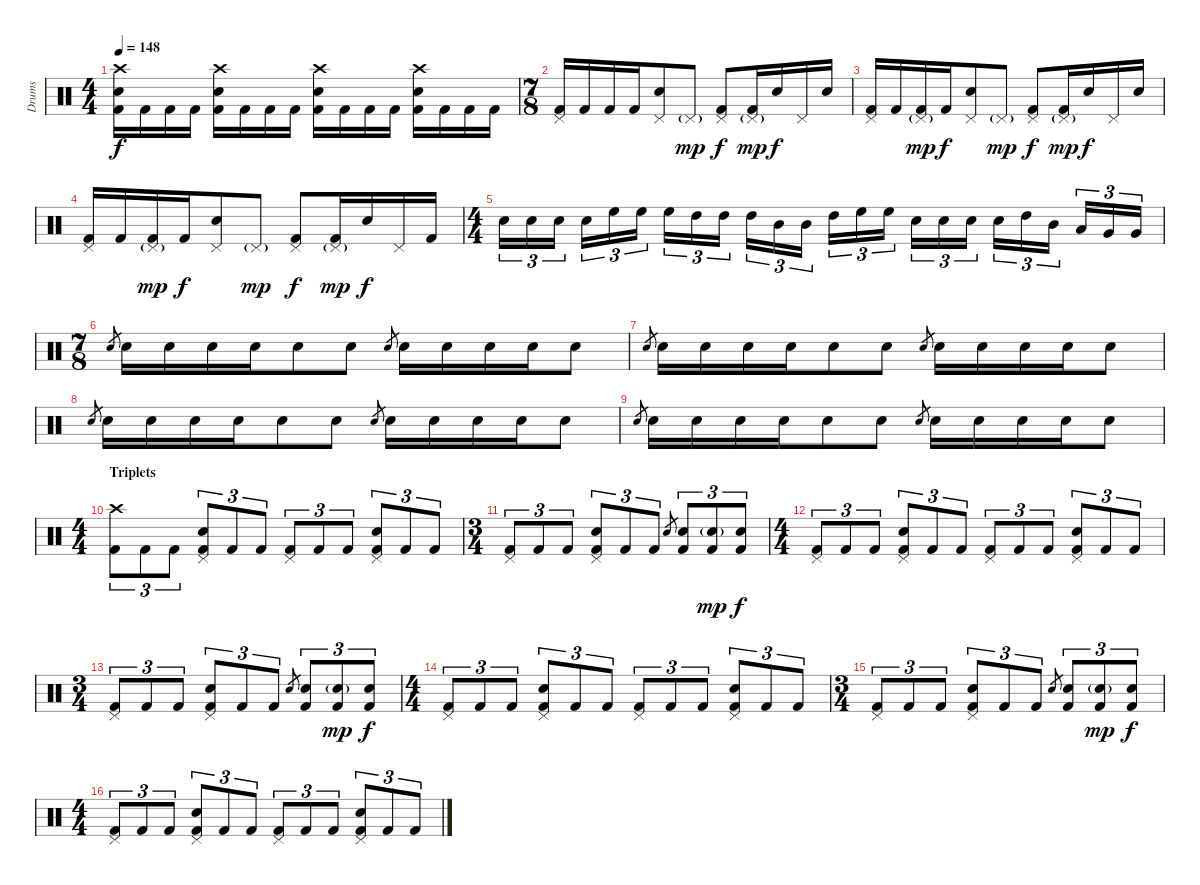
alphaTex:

\track ("Drums" "Drums") {instrument percussion}
\staff {score}
\articulation defaults
\ts (4 4)
\tempo 148
\clef neutral
\ks c
("Crash high (hit)" "Snare (hit) 2" "Kick (hit) 2").16{dy f} "Kick (hit) 2".16 "Kick (hit) 2".16 "Kick (hit) 2".16 ("Crash high (hit)" "Snare (hit) 2" "Kick (hit) 2").16 "Kick (hit) 2".16 "Kick (hit) 2".16 "Kick (hit) 2".16 ("Crash high (hit)" "Snare (hit) 2" "Kick (hit) 2").16 "Kick (hit) 2".16 "Kick (hit) 2".16 "Kick (hit) 2".16 ("Crash high (hit)" "Snare (hit) 2" "Kick (hit) 2").16 "Kick (hit) 2".16 "Kick (hit) 2".16 "Kick (hit) 2".16 |
\ts (7 8)
("Pedal Hi-Hat (hit)" "Kick (hit) 2").16 "Kick (hit) 2".16 "Kick (hit) 2".16 "Kick (hit) 2".16 ("Pedal Hi-Hat (hit)" "Snare (hit) 2").8 "Pedal Hi-Hat (hit)"{g}.8{dy mp} ("Pedal Hi-Hat (hit)" "Kick (hit) 2").8{dy f} ("Pedal Hi-Hat (hit)"{g} "Kick (hit) 2").16{dy mp} "Snare (hit) 2".16{dy f} "Pedal Hi-Hat (hit)".16 "Snare (hit) 2".16 |
("Pedal Hi-Hat (hit)" "Kick (hit) 2").16 "Kick (hit) 2".16 ("Pedal Hi-Hat (hit)"{g} "Kick (hit) 2").16{dy mp} "Kick (hit) 2".16{dy f} ("Pedal Hi-Hat (hit)" "Snare (hit) 2").8 "Pedal Hi-Hat (hit)"{g}.8{dy mp} ("Pedal Hi-Hat (hit)" "Kick (hit) 2").8{dy f} ("Pedal Hi-Hat (hit)"{g} "Kick (hit) 2").16{dy mp} "Snare (hit) 2".16{dy f} "Pedal Hi-Hat (hit)".16 "Snare (hit) 2".16 |
("Pedal Hi-Hat (hit)" "Kick (hit) 2").16 "Kick (hit) 2".16 ("Pedal Hi-Hat (hit)"{g} "Kick (hit) 2").16{dy mp} "Kick (hit) 2".16{dy f} ("Pedal Hi-Hat (hit)" "Snare (hit) 2").8 "Pedal Hi-Hat (hit)"{g}.8{dy mp} ("Pedal Hi-Hat (hit)" "Kick (hit) 2").8{dy f} ("Pedal Hi-Hat (hit)"{g} "Kick (hit) 2").16{dy mp} "Snare (hit) 2".16{dy f} "Pedal Hi-Hat (hit)".16 "Kick (hit) 2".16 |
\ts (4 4)
"Snare (hit) 2".16{tu (3 2)} "Snare (hit) 2".16{tu (3 2)} "Snare (hit) 2".16{tu (3 2)} "Snare (hit) 2".16{tu (3 2)} "High Floor Tom (hit)".16{tu (3 2)} "High Floor Tom (hit)".16{tu (3 2)} "High Floor Tom (hit)".16{tu (3 2)} "High Tom (hit)".16{tu (3 2)} "High Tom (hit)".16{tu (3 2)} "High Tom (hit)".16{tu (3 2)} "Mid Tom (hit)".16{tu (3 2)} "Mid Tom (hit)".16{tu (3 2)} "High Tom (hit)".16{tu (3 2)} "High Floor Tom (hit)".16{tu (3 2)} "High Floor Tom (hit)".16{tu (3 2)} "Snare (hit) 2".16{tu (3 2)} "Snare (hit) 2".16{tu (3 2)} "Snare (hit) 2".16{tu (3 2)} "Snare (hit) 2".16{tu (3 2)} "High Tom (hit)".16{tu (3 2)} "Mid Tom (hit)".16{tu (3 2)} "Low Tom (hit)".16{tu (3 2)} "Very Low Tom (hit)".16{tu (3 2)} "Very Low Tom (hit)".16{tu (3 2)} |
\ts (7 8)
"Snare (hit) 2".8{gr} "Snare (hit) 2".16 "Snare (hit) 2".16 "Snare (hit) 2".16 "Snare (hit) 2".16 "Snare (hit) 2".8 "Snare (hit) 2".8 "Snare (hit) 2".8{gr} "Snare (hit) 2".16 "Snare (hit) 2".16 "Snare (hit) 2".16 "Snare (hit) 2".16 "Snare (hit) 2".8 |
"Snare (hit) 2".8{gr} "Snare (hit) 2".16 "Snare (hit) 2".16 "Snare (hit) 2".16 "Snare (hit) 2".16 "Snare (hit) 2".8 "Snare (hit) 2".8 "Snare (hit) 2".8{gr} "Snare (hit) 2".16 "Snare (hit) 2".16 "Snare (hit) 2".16 "Snare (hit) 2".16 "Snare (hit) 2".8 |
"Snare (hit) 2".8{gr} "Snare (hit) 2".16 "Snare (hit) 2".16 "Snare (hit) 2".16 "Snare (hit) 2".16 "Snare (hit) 2".8 "Snare (hit) 2".8 "Snare (hit) 2".8{gr} "Snare (hit) 2".16 "Snare (hit) 2".16 "Snare (hit) 2".16 "Snare (hit) 2".16 "Snare (hit) 2".8 |
"Snare (hit) 2".8{gr} "Snare (hit) 2".16 "Snare (hit) 2".16 "Snare (hit) 2".16 "Snare (hit) 2".16 "Snare (hit) 2".8 "Snare (hit) 2".8 "Snare (hit) 2".8{gr} "Snare (hit) 2".16 "Snare (hit) 2".16 "Snare (hit) 2".16 "Snare (hit) 2".16 "Snare (hit) 2".8 |
\ts (4 4)
\section ("" "Triplets")
("Crash high (hit)" "Kick (hit) 2").8{tu (3 2)} "Kick (hit) 2".8{tu (3 2)} "Kick (hit) 2".8{tu (3 2)} ("Pedal Hi-Hat (hit)" "Snare (hit) 2" "Kick (hit) 2").8{tu (3 2)} "Kick (hit) 2".8{tu (3 2)} "Kick (hit) 2".8{tu (3 2)} ("Pedal Hi-Hat (hit)" "Kick (hit) 2").8{tu (3 2)} "Kick (hit) 2".8{tu (3 2)} "Kick (hit) 2".8{tu (3 2)} ("Pedal Hi-Hat (hit)" "Snare (hit) 2" "Kick (hit) 2").8{tu (3 2)} "Kick (hit) 2".8{tu (3 2)} "Kick (hit) 2".8{tu (3 2)} |
\ts (3 4)
("Pedal Hi-Hat (hit)" "Kick (hit) 2").8{tu (3 2)} "Kick (hit) 2".8{tu (3 2)} "Kick (hit) 2".8{tu (3 2)} ("Pedal Hi-Hat (hit)" "Snare (hit) 2" "Kick (hit) 2").8{tu (3 2)} "Kick (hit) 2".8{tu (3 2)} "Kick (hit) 2".8{tu (3 2)} "Snare (hit) 2".8{gr} ("Snare (hit) 2" "Kick (hit) 2").8{tu (3 2)} ("Snare (hit) 2"{g} "Kick (hit) 2").8{tu (3 2) dy mp} ("Snare (hit) 2" "Kick (hit) 2").8{tu (3 2) dy f} |
\ts (4 4)
("Pedal Hi-Hat (hit)" "Kick (hit) 2").8{tu (3 2)} "Kick (hit) 2".8{tu (3 2)} "Kick (hit) 2".8{tu (3 2)} ("Pedal Hi-Hat (hit)" "Snare (hit) 2" "Kick (hit) 2").8{tu (3 2)} "Kick (hit) 2".8{tu (3 2)} "Kick (hit) 2".8{tu (3 2)} ("Pedal Hi-Hat (hit)" "Kick (hit) 2").8{tu (3 2)} "Kick (hit) 2".8{tu (3 2)} "Kick (hit) 2".8{tu (3 2)} ("Pedal Hi-Hat (hit)" "Snare (hit) 2" "Kick (hit) 2").8{tu (3 2)} "Kick (hit) 2".8{tu (3 2)} "Kick (hit) 2".8{tu (3 2)} |
\ts (3 4)
("Pedal Hi-Hat (hit)" "Kick (hit) 2").8{tu (3 2)} "Kick (hit) 2".8{tu (3 2)} "Kick (hit) 2".8{tu (3 2)} ("Pedal Hi-Hat (hit)" "Snare (hit) 2" "Kick (hit) 2").8{tu (3 2)} "Kick (hit) 2".8{tu (3 2)} "Kick (hit) 2".8{tu (3 2)} "Snare (hit) 2".8{gr} ("Snare (hit) 2" "Kick (hit) 2").8{tu (3 2)} ("Snare (hit) 2"{g} "Kick (hit) 2").8{tu (3 2) dy mp} ("Snare (hit) 2" "Kick (hit) 2").8{tu (3 2) dy f} |
\ts (4 4)
("Pedal Hi-Hat (hit)" "Kick (hit) 2").8{tu (3 2)} "Kick (hit) 2".8{tu (3 2)} "Kick (hit) 2".8{tu (3 2)} ("Pedal Hi-Hat (hit)" "Snare (hit) 2" "Kick (hit) 2").8{tu (3 2)} "Kick (hit) 2".8{tu (3 2)} "Kick (hit) 2".8{tu (3 2)} ("Pedal Hi-Hat (hit)" "Kick (hit) 2").8{tu (3 2)} "Kick (hit) 2".8{tu (3 2)} "Kick (hit) 2".8{tu (3 2)} ("Pedal Hi-Hat (hit)" "Snare (hit) 2" "Kick (hit) 2").8{tu (3 2)} "Kick (hit) 2".8{tu (3 2)} "Kick (hit) 2".8{tu (3 2)} |
\ts (3 4)
("Pedal Hi-Hat (hit)" "Kick (hit) 2").8{tu (3 2)} "Kick (hit) 2".8{tu (3 2)} "Kick (hit) 2".8{tu (3 2)} ("Pedal Hi-Hat (hit)" "Snare (hit) 2" "Kick (hit) 2").8{tu (3 2)} "Kick (hit) 2".8{tu (3 2)} "Kick (hit) 2".8{tu (3 2)} "Snare (hit) 2".8{gr} ("Snare (hit) 2" "Kick (hit) 2").8{tu (3 2)} ("Snare (hit) 2"{g} "Kick (hit) 2").8{tu (3 2) dy mp} ("Snare (hit) 2" "Kick (hit) 2").8{tu (3 2) dy f} |
\ts (4 4)
("Pedal Hi-Hat (hit)" "Kick (hit) 2").8{tu (3 2)} "Kick (hit) 2".8{tu (3 2)} "Kick (hit) 2".8{tu (3 2)} ("Pedal Hi-Hat (hit)" "Snare (hit) 2" "Kick (hit) 2").8{tu (3 2)} "Kick (hit) 2".8{tu (3 2)} "Kick (hit) 2".8{tu (3 2)} ("Pedal Hi-Hat (hit)" "Kick (hit) 2").8{tu (3 2)} "Kick (hit) 2".8{tu (3 2)} "Kick (hit) 2".8{tu (3 2)} ("Pedal Hi-Hat (hit)" "Snare (hit) 2" "Kick (hit) 2").8{tu (3 2)} "Kick (hit) 2".8{tu (3 2)} "Kick (hit) 2".8{tu (3 2)}
